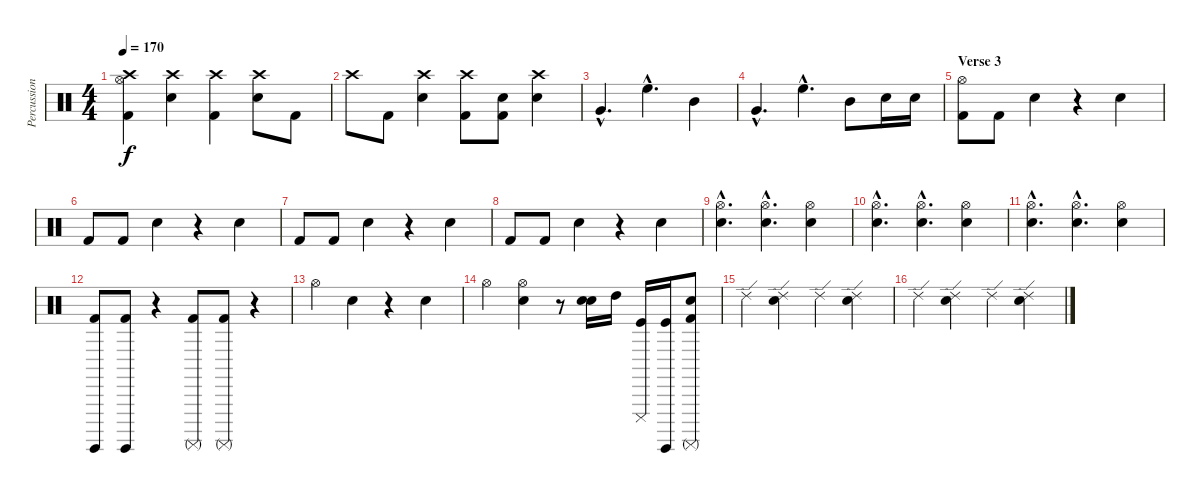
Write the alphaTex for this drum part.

\track ("Percussion" "Percussion") {instrument percussion}
\staff {score}
\articulation defaults
\ts (4 4)
\tempo 170
\clef neutral
\ks c
("Crash high (hit)" "Hi-Hat (open)" "Kick (hit) 2").4{dy f} ("Hand Clap (hit)" "Crash high (hit)").4 ("Crash high (hit)" "Kick (hit) 2").4 ("Hand Clap (hit)" "Crash high (hit)").8 "Kick (hit) 2".8 |
"Crash high (hit)".8 "Kick (hit) 2".8 ("Hand Clap (hit)" "Crash high (hit)").4 ("Crash high (hit)" "Kick (hit) 2").8 ("Hand Clap (hit)" "Kick (hit) 2").8 ("Hand Clap (hit)" "Crash high (hit)").4 |
"Very Low Tom (hit)"{hac}.4{d} "High Floor Tom (hit)"{hac}.4{d} "Mid Tom (hit)".4 |
"Very Low Tom (hit)"{hac}.4{d} "High Floor Tom (hit)"{hac}.4{d} "Mid Tom (hit)".8 "Electric Snare (hit)".16 "Snare (hit) 2".16 |
\section ("" "Verse 3")
("Hi-Hat (open)" "Kick (hit) 2").8 "Kick (hit) 2".8 "Electric Snare (hit)".4 r.4 "Electric Snare (hit)".4 |
"Kick (hit) 2".8 "Kick (hit) 2".8 "Electric Snare (hit)".4 r.4 "Electric Snare (hit)".4 |
"Kick (hit) 2".8 "Kick (hit) 2".8 "Electric Snare (hit)".4 r.4 "Electric Snare (hit)".4 |
"Kick (hit) 2".8 "Kick (hit) 2".8 "Electric Snare (hit)".4 r.4 "Electric Snare (hit)".4 |
("Snare (hit) 2"{hac} "Hi-Hat (open)"{hac}).4{d} ("Snare (hit) 2"{hac} "Hi-Hat (open)"{hac}).4{d} ("Snare (hit) 2" "Hi-Hat (open)").4 |
("Snare (hit) 2"{hac} "Hi-Hat (open)"{hac}).4{d} ("Snare (hit) 2"{hac} "Hi-Hat (open)"{hac}).4{d} ("Snare (hit) 2" "Hi-Hat (open)").4 |
("Snare (hit) 2"{hac} "Hi-Hat (open)"{hac}).4{d} ("Snare (hit) 2"{hac} "Hi-Hat (open)"{hac}).4{d} ("Snare (hit) 2" "Hi-Hat (open)").4 |
("Surdo (hit)" "Kick (hit) 2").8 ("Surdo (hit)" "Kick (hit) 2").8 r.4 ("Surdo (mute)" "Kick (hit) 2").8 ("Surdo (mute)" "Kick (hit) 2").8 r.4 |
"Hi-Hat (open)".4 "Hand Clap (hit)".4 r.4 "Hand Clap (hit)".4 |
"Hi-Hat (open)".4 ("Hand Clap (hit)" "Hi-Hat (open)").4 r.8 ("Hand Clap (hit)" "Electric Snare (hit)").16 "High Tom (hit)".16 ("Cuica (mute)" "Kick (hit)").16 ("Surdo (hit)" "Kick (hit)").16 ("Hand Clap (hit)" "Surdo (mute)" "Kick (hit) 2").8 |
"Ride (edge) 2".4 ("Electric Snare (hit)" "Ride (edge) 2").4 "Ride (edge) 2".4 ("Electric Snare (hit)" "Ride (edge) 2").4 |
"Ride (edge) 2".4 ("Electric Snare (hit)" "Ride (edge) 2").4 "Ride (edge) 2".4 ("Electric Snare (hit)" "Ride (edge) 2").4
